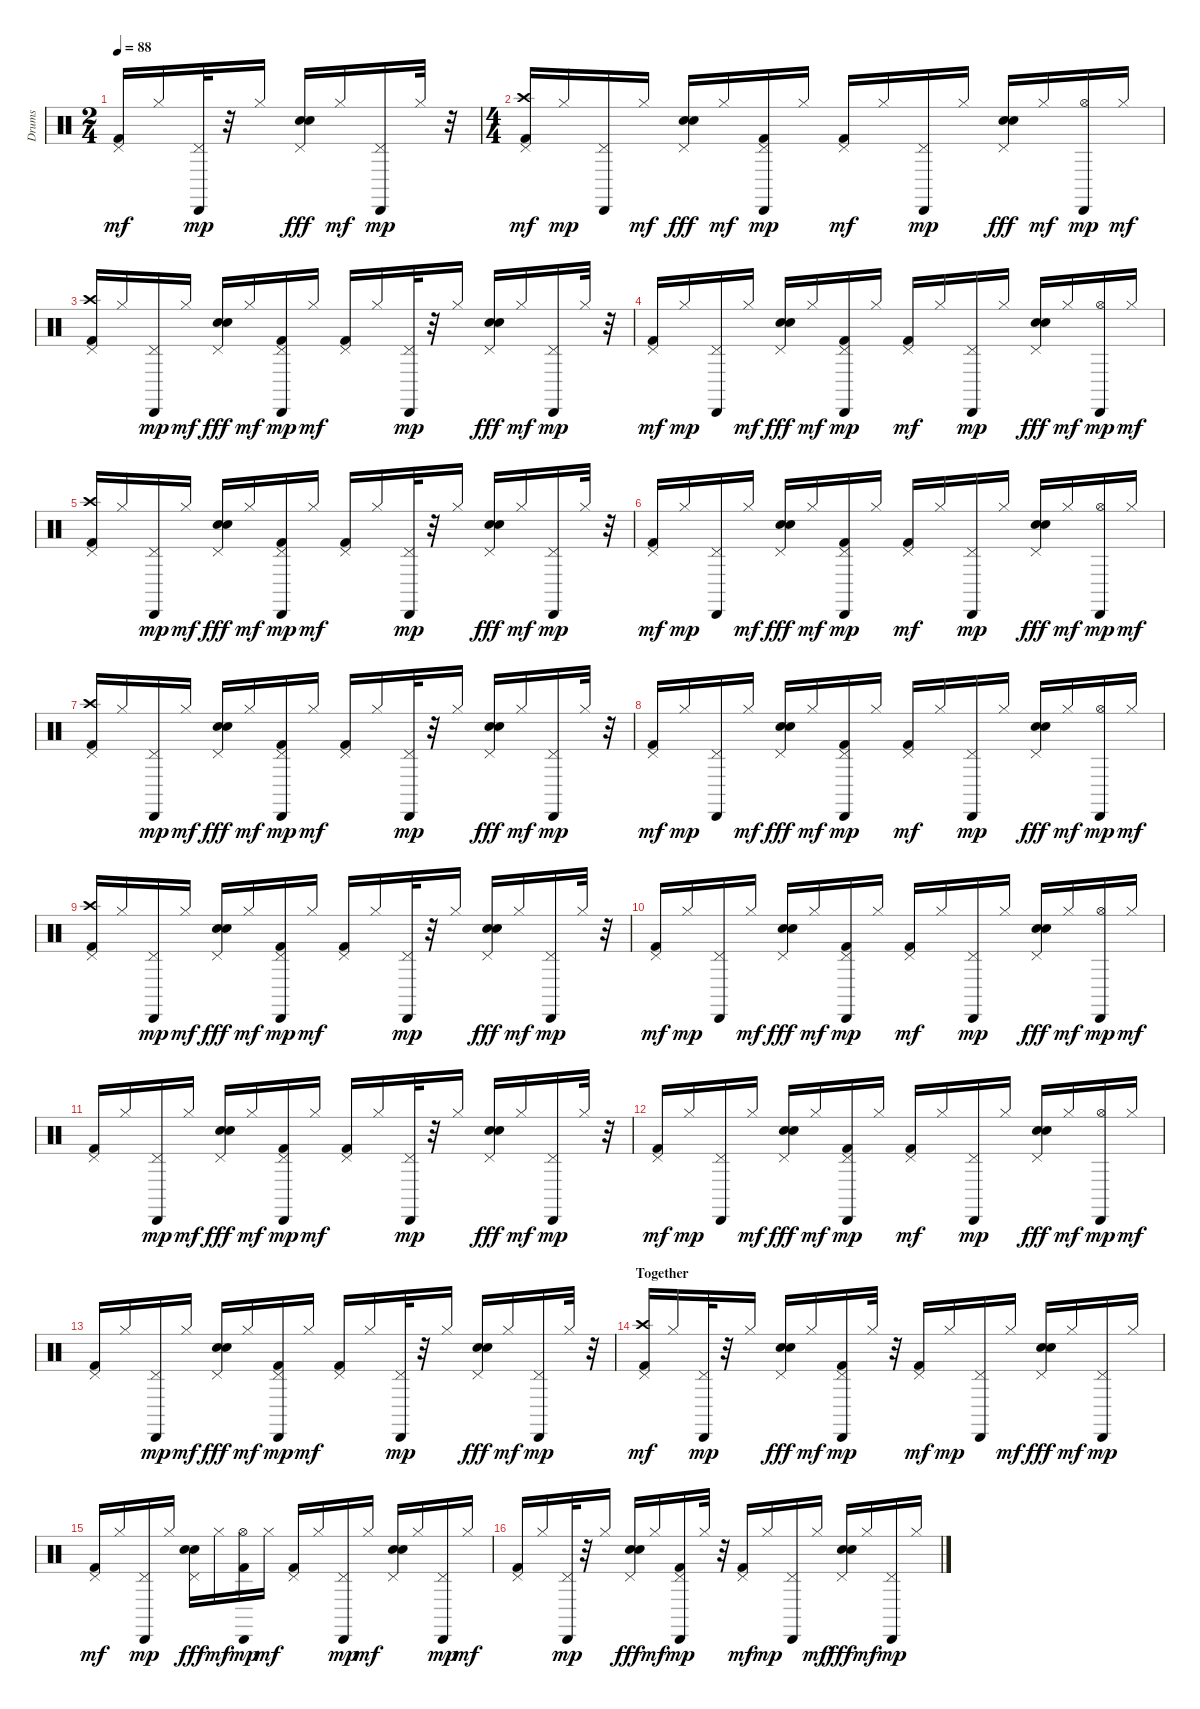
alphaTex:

\track ("Drums" "Drums") {instrument percussion}
\staff {score}
\articulation defaults
\ts (2 4)
\tempo 88
\clef neutral
\ks c
("Pedal Hi-Hat (hit)" "Kick (hit) 2").16{dy mf} "Hi-Hat (closed)".16 ("Pedal Hi-Hat (hit)" "Cabasa (hit)").32{dy mp} r.32 "Hi-Hat (closed)".16 ("Pedal Hi-Hat (hit)" "Snare (hit) 2" "Electric Snare (hit)").16{dy fff} "Hi-Hat (closed)".16{dy mf} ("Pedal Hi-Hat (hit)" "Cabasa (hit)").16{dy mp} "Hi-Hat (closed)".32 r.32 |
\ts (4 4)
("Pedal Hi-Hat (hit)" "Crash high (hit)" "Kick (hit) 2").16{dy mf} "Hi-Hat (closed)".16{dy mp} ("Pedal Hi-Hat (hit)" "Cabasa (hit)").16 "Hi-Hat (closed)".16{dy mf} ("Pedal Hi-Hat (hit)" "Snare (hit) 2" "Electric Snare (hit)").16{dy fff} "Hi-Hat (closed)".16{dy mf} ("Pedal Hi-Hat (hit)" "Cabasa (hit)" "Kick (hit) 2").16{dy mp} "Hi-Hat (closed)".16 ("Pedal Hi-Hat (hit)" "Kick (hit) 2").16{dy mf} "Hi-Hat (closed)".16 ("Pedal Hi-Hat (hit)" "Cabasa (hit)").16{dy mp} "Hi-Hat (closed)".16 ("Pedal Hi-Hat (hit)" "Snare (hit) 2" "Electric Snare (hit)").16{dy fff} "Hi-Hat (closed)".16{dy mf} ("Hi-Hat (open)" "Cabasa (hit)").16{dy mp} "Hi-Hat (closed)".16{dy mf} |
("Crash high (hit)" "Kick (hit) 2" "Pedal Hi-Hat (hit)").16 "Hi-Hat (closed)".16 ("Pedal Hi-Hat (hit)" "Cabasa (hit)").16{dy mp} "Hi-Hat (closed)".16{dy mf} ("Snare (hit) 2" "Pedal Hi-Hat (hit)" "Electric Snare (hit)").16{dy fff} "Hi-Hat (closed)".16{dy mf} ("Kick (hit) 2" "Pedal Hi-Hat (hit)" "Cabasa (hit)").16{dy mp} "Hi-Hat (closed)".16{dy mf} ("Kick (hit) 2" "Pedal Hi-Hat (hit)").16 "Hi-Hat (closed)".16 ("Pedal Hi-Hat (hit)" "Cabasa (hit)").32{dy mp} r.32 "Hi-Hat (closed)".16 ("Snare (hit) 2" "Pedal Hi-Hat (hit)" "Electric Snare (hit)").16{dy fff} "Hi-Hat (closed)".16{dy mf} ("Pedal Hi-Hat (hit)" "Cabasa (hit)").16{dy mp} "Hi-Hat (closed)".32 r.32 |
("Pedal Hi-Hat (hit)" "Kick (hit) 2").16{dy mf} "Hi-Hat (closed)".16{dy mp} ("Pedal Hi-Hat (hit)" "Cabasa (hit)").16 "Hi-Hat (closed)".16{dy mf} ("Pedal Hi-Hat (hit)" "Snare (hit) 2" "Electric Snare (hit)").16{dy fff} "Hi-Hat (closed)".16{dy mf} ("Pedal Hi-Hat (hit)" "Cabasa (hit)" "Kick (hit) 2").16{dy mp} "Hi-Hat (closed)".16 ("Pedal Hi-Hat (hit)" "Kick (hit) 2").16{dy mf} "Hi-Hat (closed)".16 ("Pedal Hi-Hat (hit)" "Cabasa (hit)").16{dy mp} "Hi-Hat (closed)".16 ("Pedal Hi-Hat (hit)" "Snare (hit) 2" "Electric Snare (hit)").16{dy fff} "Hi-Hat (closed)".16{dy mf} ("Hi-Hat (open)" "Cabasa (hit)").16{dy mp} "Hi-Hat (closed)".16{dy mf} |
("Crash high (hit)" "Pedal Hi-Hat (hit)" "Kick (hit) 2").16 "Hi-Hat (closed)".16 ("Pedal Hi-Hat (hit)" "Cabasa (hit)").16{dy mp} "Hi-Hat (closed)".16{dy mf} ("Pedal Hi-Hat (hit)" "Snare (hit) 2" "Electric Snare (hit)").16{dy fff} "Hi-Hat (closed)".16{dy mf} ("Pedal Hi-Hat (hit)" "Cabasa (hit)" "Kick (hit) 2").16{dy mp} "Hi-Hat (closed)".16{dy mf} ("Pedal Hi-Hat (hit)" "Kick (hit) 2").16 "Hi-Hat (closed)".16 ("Pedal Hi-Hat (hit)" "Cabasa (hit)").32{dy mp} r.32 "Hi-Hat (closed)".16 ("Pedal Hi-Hat (hit)" "Snare (hit) 2" "Electric Snare (hit)").16{dy fff} "Hi-Hat (closed)".16{dy mf} ("Pedal Hi-Hat (hit)" "Cabasa (hit)").16{dy mp} "Hi-Hat (closed)".32 r.32 |
("Pedal Hi-Hat (hit)" "Kick (hit) 2").16{dy mf} "Hi-Hat (closed)".16{dy mp} ("Pedal Hi-Hat (hit)" "Cabasa (hit)").16 "Hi-Hat (closed)".16{dy mf} ("Pedal Hi-Hat (hit)" "Snare (hit) 2" "Electric Snare (hit)").16{dy fff} "Hi-Hat (closed)".16{dy mf} ("Pedal Hi-Hat (hit)" "Cabasa (hit)" "Kick (hit) 2").16{dy mp} "Hi-Hat (closed)".16 ("Pedal Hi-Hat (hit)" "Kick (hit) 2").16{dy mf} "Hi-Hat (closed)".16 ("Pedal Hi-Hat (hit)" "Cabasa (hit)").16{dy mp} "Hi-Hat (closed)".16 ("Pedal Hi-Hat (hit)" "Snare (hit) 2" "Electric Snare (hit)").16{dy fff} "Hi-Hat (closed)".16{dy mf} ("Hi-Hat (open)" "Cabasa (hit)").16{dy mp} "Hi-Hat (closed)".16{dy mf} |
("Pedal Hi-Hat (hit)" "Crash high (hit)" "Kick (hit) 2").16 "Hi-Hat (closed)".16 ("Pedal Hi-Hat (hit)" "Cabasa (hit)").16{dy mp} "Hi-Hat (closed)".16{dy mf} ("Pedal Hi-Hat (hit)" "Snare (hit) 2" "Electric Snare (hit)").16{dy fff} "Hi-Hat (closed)".16{dy mf} ("Pedal Hi-Hat (hit)" "Cabasa (hit)" "Kick (hit) 2").16{dy mp} "Hi-Hat (closed)".16{dy mf} ("Pedal Hi-Hat (hit)" "Kick (hit) 2").16 "Hi-Hat (closed)".16 ("Pedal Hi-Hat (hit)" "Cabasa (hit)").32{dy mp} r.32 "Hi-Hat (closed)".16 ("Pedal Hi-Hat (hit)" "Snare (hit) 2" "Electric Snare (hit)").16{dy fff} "Hi-Hat (closed)".16{dy mf} ("Pedal Hi-Hat (hit)" "Cabasa (hit)").16{dy mp} "Hi-Hat (closed)".32 r.32 |
("Pedal Hi-Hat (hit)" "Kick (hit) 2").16{dy mf} "Hi-Hat (closed)".16{dy mp} ("Pedal Hi-Hat (hit)" "Cabasa (hit)").16 "Hi-Hat (closed)".16{dy mf} ("Pedal Hi-Hat (hit)" "Snare (hit) 2" "Electric Snare (hit)").16{dy fff} "Hi-Hat (closed)".16{dy mf} ("Pedal Hi-Hat (hit)" "Cabasa (hit)" "Kick (hit) 2").16{dy mp} "Hi-Hat (closed)".16 ("Pedal Hi-Hat (hit)" "Kick (hit) 2").16{dy mf} "Hi-Hat (closed)".16 ("Pedal Hi-Hat (hit)" "Cabasa (hit)").16{dy mp} "Hi-Hat (closed)".16 ("Pedal Hi-Hat (hit)" "Snare (hit) 2" "Electric Snare (hit)").16{dy fff} "Hi-Hat (closed)".16{dy mf} ("Hi-Hat (open)" "Cabasa (hit)").16{dy mp} "Hi-Hat (closed)".16{dy mf} |
("Crash high (hit)" "Pedal Hi-Hat (hit)" "Kick (hit) 2").16 "Hi-Hat (closed)".16 ("Pedal Hi-Hat (hit)" "Cabasa (hit)").16{dy mp} "Hi-Hat (closed)".16{dy mf} ("Pedal Hi-Hat (hit)" "Snare (hit) 2" "Electric Snare (hit)").16{dy fff} "Hi-Hat (closed)".16{dy mf} ("Pedal Hi-Hat (hit)" "Cabasa (hit)" "Kick (hit) 2").16{dy mp} "Hi-Hat (closed)".16{dy mf} ("Pedal Hi-Hat (hit)" "Kick (hit) 2").16 "Hi-Hat (closed)".16 ("Pedal Hi-Hat (hit)" "Cabasa (hit)").32{dy mp} r.32 "Hi-Hat (closed)".16 ("Pedal Hi-Hat (hit)" "Snare (hit) 2" "Electric Snare (hit)").16{dy fff} "Hi-Hat (closed)".16{dy mf} ("Pedal Hi-Hat (hit)" "Cabasa (hit)").16{dy mp} "Hi-Hat (closed)".32 r.32 |
("Pedal Hi-Hat (hit)" "Kick (hit) 2").16{dy mf} "Hi-Hat (closed)".16{dy mp} ("Pedal Hi-Hat (hit)" "Cabasa (hit)").16 "Hi-Hat (closed)".16{dy mf} ("Pedal Hi-Hat (hit)" "Snare (hit) 2" "Electric Snare (hit)").16{dy fff} "Hi-Hat (closed)".16{dy mf} ("Pedal Hi-Hat (hit)" "Cabasa (hit)" "Kick (hit) 2").16{dy mp} "Hi-Hat (closed)".16 ("Pedal Hi-Hat (hit)" "Kick (hit) 2").16{dy mf} "Hi-Hat (closed)".16 ("Pedal Hi-Hat (hit)" "Cabasa (hit)").16{dy mp} "Hi-Hat (closed)".16 ("Pedal Hi-Hat (hit)" "Snare (hit) 2" "Electric Snare (hit)").16{dy fff} "Hi-Hat (closed)".16{dy mf} ("Hi-Hat (open)" "Cabasa (hit)").16{dy mp} "Hi-Hat (closed)".16{dy mf} |
("Pedal Hi-Hat (hit)" "Kick (hit) 2").16 "Hi-Hat (closed)".16 ("Pedal Hi-Hat (hit)" "Cabasa (hit)").16{dy mp} "Hi-Hat (closed)".16{dy mf} ("Pedal Hi-Hat (hit)" "Snare (hit) 2" "Electric Snare (hit)").16{dy fff} "Hi-Hat (closed)".16{dy mf} ("Pedal Hi-Hat (hit)" "Cabasa (hit)" "Kick (hit) 2").16{dy mp} "Hi-Hat (closed)".16{dy mf} ("Pedal Hi-Hat (hit)" "Kick (hit) 2").16 "Hi-Hat (closed)".16 ("Pedal Hi-Hat (hit)" "Cabasa (hit)").32{dy mp} r.32 "Hi-Hat (closed)".16 ("Pedal Hi-Hat (hit)" "Snare (hit) 2" "Electric Snare (hit)").16{dy fff} "Hi-Hat (closed)".16{dy mf} ("Pedal Hi-Hat (hit)" "Cabasa (hit)").16{dy mp} "Hi-Hat (closed)".32 r.32 |
("Pedal Hi-Hat (hit)" "Kick (hit) 2").16{dy mf} "Hi-Hat (closed)".16{dy mp} ("Pedal Hi-Hat (hit)" "Cabasa (hit)").16 "Hi-Hat (closed)".16{dy mf} ("Pedal Hi-Hat (hit)" "Snare (hit) 2" "Electric Snare (hit)").16{dy fff} "Hi-Hat (closed)".16{dy mf} ("Pedal Hi-Hat (hit)" "Cabasa (hit)" "Kick (hit) 2").16{dy mp} "Hi-Hat (closed)".16 ("Pedal Hi-Hat (hit)" "Kick (hit) 2").16{dy mf} "Hi-Hat (closed)".16 ("Pedal Hi-Hat (hit)" "Cabasa (hit)").16{dy mp} "Hi-Hat (closed)".16 ("Pedal Hi-Hat (hit)" "Snare (hit) 2" "Electric Snare (hit)").16{dy fff} "Hi-Hat (closed)".16{dy mf} ("Hi-Hat (open)" "Cabasa (hit)").16{dy mp} "Hi-Hat (closed)".16{dy mf} |
("Pedal Hi-Hat (hit)" "Kick (hit) 2").16 "Hi-Hat (closed)".16 ("Pedal Hi-Hat (hit)" "Cabasa (hit)").16{dy mp} "Hi-Hat (closed)".16{dy mf} ("Pedal Hi-Hat (hit)" "Snare (hit) 2" "Electric Snare (hit)").16{dy fff} "Hi-Hat (closed)".16{dy mf} ("Pedal Hi-Hat (hit)" "Cabasa (hit)" "Kick (hit) 2").16{dy mp} "Hi-Hat (closed)".16{dy mf} ("Pedal Hi-Hat (hit)" "Kick (hit) 2").16 "Hi-Hat (closed)".16 ("Pedal Hi-Hat (hit)" "Cabasa (hit)").32{dy mp} r.32 "Hi-Hat (closed)".16 ("Pedal Hi-Hat (hit)" "Snare (hit) 2" "Electric Snare (hit)").16{dy fff} "Hi-Hat (closed)".16{dy mf} ("Pedal Hi-Hat (hit)" "Cabasa (hit)").16{dy mp} "Hi-Hat (closed)".32 r.32 |
\section ("" "Together")
("Pedal Hi-Hat (hit)" "Crash high (hit)" "Kick (hit) 2").16{dy mf} "Hi-Hat (closed)".16 ("Pedal Hi-Hat (hit)" "Cabasa (hit)").32{dy mp} r.32 "Hi-Hat (closed)".16 ("Pedal Hi-Hat (hit)" "Snare (hit) 2" "Electric Snare (hit)").16{dy fff} "Hi-Hat (closed)".16{dy mf} ("Pedal Hi-Hat (hit)" "Cabasa (hit)" "Kick (hit) 2").16{dy mp} "Hi-Hat (closed)".32 r.32 ("Pedal Hi-Hat (hit)" "Kick (hit) 2").16{dy mf} "Hi-Hat (closed)".16{dy mp} ("Pedal Hi-Hat (hit)" "Cabasa (hit)").16 "Hi-Hat (closed)".16{dy mf} ("Pedal Hi-Hat (hit)" "Snare (hit) 2" "Electric Snare (hit)").16{dy fff} "Hi-Hat (closed)".16{dy mf} ("Pedal Hi-Hat (hit)" "Cabasa (hit)").16{dy mp} "Hi-Hat (closed)".16 |
("Pedal Hi-Hat (hit)" "Kick (hit) 2").16{dy mf} "Hi-Hat (closed)".16 ("Pedal Hi-Hat (hit)" "Cabasa (hit)").16{dy mp} "Hi-Hat (closed)".16 ("Pedal Hi-Hat (hit)" "Snare (hit) 2" "Electric Snare (hit)").16{dy fff} "Hi-Hat (closed)".16{dy mf} ("Hi-Hat (open)" "Cabasa (hit)" "Kick (hit) 2").16{dy mp} "Hi-Hat (closed)".16{dy mf} ("Kick (hit) 2" "Pedal Hi-Hat (hit)").16 "Hi-Hat (closed)".16 ("Pedal Hi-Hat (hit)" "Cabasa (hit)").16{dy mp} "Hi-Hat (closed)".16{dy mf} ("Snare (hit) 2" "Electric Snare (hit)" "Pedal Hi-Hat (hit)").16 "Hi-Hat (closed)".16 ("Pedal Hi-Hat (hit)" "Cabasa (hit)").16{dy mp} "Hi-Hat (closed)".16{dy mf} |
("Pedal Hi-Hat (hit)" "Kick (hit) 2").16 "Hi-Hat (closed)".16 ("Pedal Hi-Hat (hit)" "Cabasa (hit)").32{dy mp} r.32 "Hi-Hat (closed)".16 ("Pedal Hi-Hat (hit)" "Snare (hit) 2" "Electric Snare (hit)").16{dy fff} "Hi-Hat (closed)".16{dy mf} ("Pedal Hi-Hat (hit)" "Cabasa (hit)" "Kick (hit) 2").16{dy mp} "Hi-Hat (closed)".32 r.32 ("Pedal Hi-Hat (hit)" "Kick (hit) 2").16{dy mf} "Hi-Hat (closed)".16{dy mp} ("Pedal Hi-Hat (hit)" "Cabasa (hit)").16 "Hi-Hat (closed)".16{dy mf} ("Pedal Hi-Hat (hit)" "Snare (hit) 2" "Electric Snare (hit)").16{dy fff} "Hi-Hat (closed)".16{dy mf} ("Pedal Hi-Hat (hit)" "Cabasa (hit)").16{dy mp} "Hi-Hat (closed)".16
